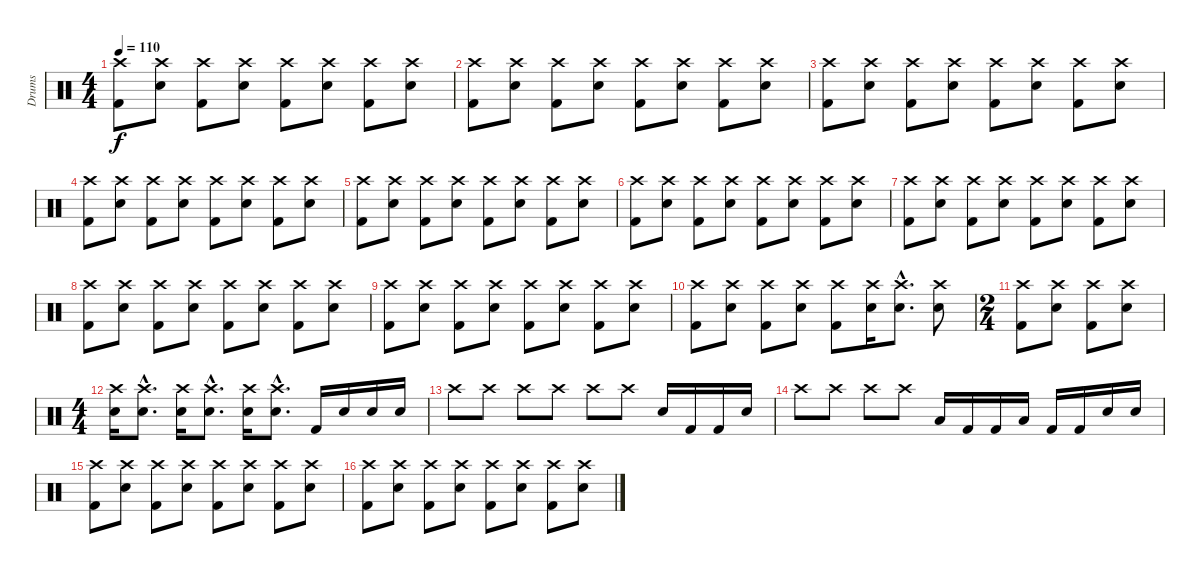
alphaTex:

\track ("Drums" "Drums") {instrument percussion}
\staff {score}
\articulation defaults
\ts (4 4)
\tempo 110
\clef neutral
\ks c
("Crash high (hit)" "Kick (hit) 2").8{dy f} ("Crash high (hit)" "Snare (hit) 2").8 ("Crash high (hit)" "Kick (hit) 2").8 ("Crash high (hit)" "Snare (hit) 2").8 ("Crash high (hit)" "Kick (hit) 2").8 ("Crash high (hit)" "Snare (hit) 2").8 ("Crash high (hit)" "Kick (hit) 2").8 ("Crash high (hit)" "Snare (hit) 2").8 |
("Crash high (hit)" "Kick (hit) 2").8 ("Crash high (hit)" "Snare (hit) 2").8 ("Crash high (hit)" "Kick (hit) 2").8 ("Crash high (hit)" "Snare (hit) 2").8 ("Crash high (hit)" "Kick (hit) 2").8 ("Crash high (hit)" "Snare (hit) 2").8 ("Crash high (hit)" "Kick (hit) 2").8 ("Crash high (hit)" "Snare (hit) 2").8 |
("Crash high (hit)" "Kick (hit) 2").8 ("Crash high (hit)" "Snare (hit) 2").8 ("Crash high (hit)" "Kick (hit) 2").8 ("Crash high (hit)" "Snare (hit) 2").8 ("Crash high (hit)" "Kick (hit) 2").8 ("Crash high (hit)" "Snare (hit) 2").8 ("Crash high (hit)" "Kick (hit) 2").8 ("Crash high (hit)" "Snare (hit) 2").8 |
("Crash high (hit)" "Kick (hit) 2").8 ("Crash high (hit)" "Snare (hit) 2").8 ("Crash high (hit)" "Kick (hit) 2").8 ("Crash high (hit)" "Snare (hit) 2").8 ("Crash high (hit)" "Kick (hit) 2").8 ("Crash high (hit)" "Snare (hit) 2").8 ("Crash high (hit)" "Kick (hit) 2").8 ("Crash high (hit)" "Snare (hit) 2").8 |
("Crash high (hit)" "Kick (hit) 2").8 ("Crash high (hit)" "Snare (hit) 2").8 ("Crash high (hit)" "Kick (hit) 2").8 ("Crash high (hit)" "Snare (hit) 2").8 ("Crash high (hit)" "Kick (hit) 2").8 ("Crash high (hit)" "Snare (hit) 2").8 ("Crash high (hit)" "Kick (hit) 2").8 ("Crash high (hit)" "Snare (hit) 2").8 |
("Crash high (hit)" "Kick (hit) 2").8 ("Crash high (hit)" "Snare (hit) 2").8 ("Crash high (hit)" "Kick (hit) 2").8 ("Crash high (hit)" "Snare (hit) 2").8 ("Crash high (hit)" "Kick (hit) 2").8 ("Crash high (hit)" "Snare (hit) 2").8 ("Crash high (hit)" "Kick (hit) 2").8 ("Crash high (hit)" "Snare (hit) 2").8 |
("Crash high (hit)" "Kick (hit) 2").8 ("Crash high (hit)" "Snare (hit) 2").8 ("Crash high (hit)" "Kick (hit) 2").8 ("Crash high (hit)" "Snare (hit) 2").8 ("Crash high (hit)" "Kick (hit) 2").8 ("Crash high (hit)" "Snare (hit) 2").8 ("Crash high (hit)" "Kick (hit) 2").8 ("Crash high (hit)" "Snare (hit) 2").8 |
("Crash high (hit)" "Kick (hit) 2").8 ("Crash high (hit)" "Snare (hit) 2").8 ("Crash high (hit)" "Kick (hit) 2").8 ("Crash high (hit)" "Snare (hit) 2").8 ("Crash high (hit)" "Kick (hit) 2").8 ("Crash high (hit)" "Snare (hit) 2").8 ("Crash high (hit)" "Kick (hit) 2").8 ("Crash high (hit)" "Snare (hit) 2").8 |
("Crash high (hit)" "Kick (hit) 2").8 ("Crash high (hit)" "Snare (hit) 2").8 ("Crash high (hit)" "Kick (hit) 2").8 ("Crash high (hit)" "Snare (hit) 2").8 ("Crash high (hit)" "Kick (hit) 2").8 ("Crash high (hit)" "Snare (hit) 2").8 ("Crash high (hit)" "Kick (hit) 2").8 ("Crash high (hit)" "Snare (hit) 2").8 |
("Crash high (hit)" "Kick (hit) 2").8 ("Crash high (hit)" "Snare (hit) 2").8 ("Crash high (hit)" "Kick (hit) 2").8 ("Crash high (hit)" "Snare (hit) 2").8 ("Crash high (hit)" "Kick (hit) 2").8 ("Crash high (hit)" "Snare (hit) 2").16 ("Crash high (hit)"{hac} "Snare (hit) 2"{hac}).8{d} ("Crash high (hit)" "Snare (hit) 2").8 |
\ts (2 4)
("Crash high (hit)" "Kick (hit) 2").8 ("Crash high (hit)" "Snare (hit) 2").8 ("Crash high (hit)" "Kick (hit) 2").8 ("Crash high (hit)" "Snare (hit) 2").8 |
\ts (4 4)
("Crash high (hit)" "Snare (hit) 2").16 ("Crash high (hit)"{hac} "Snare (hit) 2"{hac}).8{d} ("Crash high (hit)" "Snare (hit) 2").16 ("Crash high (hit)"{hac} "Snare (hit) 2"{hac}).8{d} ("Crash high (hit)" "Snare (hit) 2").16 ("Crash high (hit)"{hac} "Snare (hit) 2"{hac}).8{d} "Kick (hit) 2".16 "Snare (hit) 2".16 "Snare (hit) 2".16 "Snare (hit) 2".16 |
"Crash high (hit)".8 "Crash high (hit)".8 "Crash high (hit)".8 "Crash high (hit)".8 "Crash high (hit)".8 "Crash high (hit)".8 "Snare (hit) 2".16 "Kick (hit) 2".16 "Kick (hit) 2".16 "Snare (hit) 2".16 |
"Crash high (hit)".8 "Crash high (hit)".8 "Crash high (hit)".8 "Crash high (hit)".8 "Low Tom (hit)".16 "Kick (hit) 2".16 "Kick (hit) 2".16 "Low Tom (hit)".16 "Kick (hit) 2".16 "Kick (hit) 2".16 "Snare (hit) 2".16 "Snare (hit) 2".16 |
("Crash high (hit)" "Kick (hit) 2").8 ("Crash high (hit)" "Snare (hit) 2").8 ("Crash high (hit)" "Kick (hit) 2").8 ("Crash high (hit)" "Snare (hit) 2").8 ("Crash high (hit)" "Kick (hit) 2").8 ("Crash high (hit)" "Snare (hit) 2").8 ("Crash high (hit)" "Kick (hit) 2").8 ("Crash high (hit)" "Snare (hit) 2").8 |
("Crash high (hit)" "Kick (hit) 2").8 ("Crash high (hit)" "Snare (hit) 2").8 ("Crash high (hit)" "Kick (hit) 2").8 ("Crash high (hit)" "Snare (hit) 2").8 ("Crash high (hit)" "Kick (hit) 2").8 ("Crash high (hit)" "Snare (hit) 2").8 ("Crash high (hit)" "Kick (hit) 2").8 ("Crash high (hit)" "Snare (hit) 2").8
